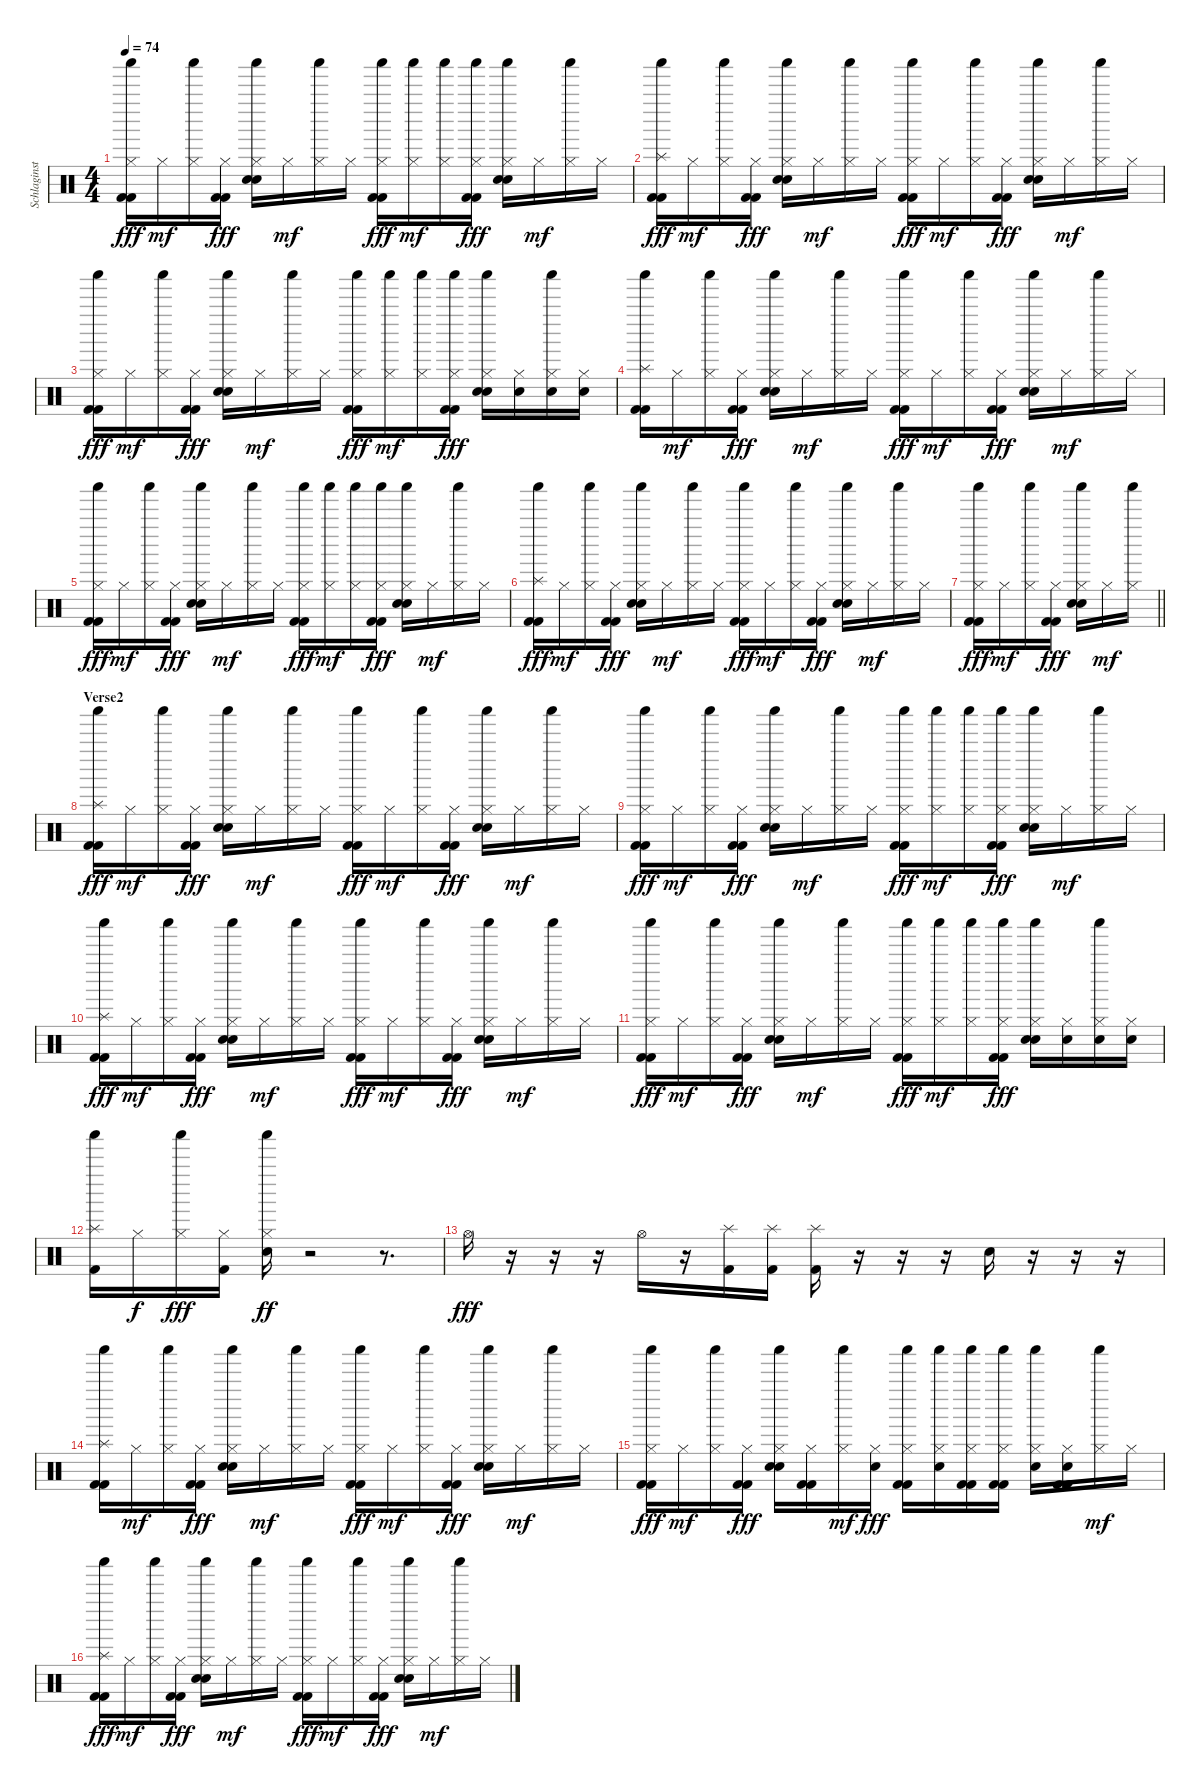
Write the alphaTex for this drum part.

\track ("Schlaginstrumente - Auswahl" "Schlaginst") {instrument percussion}
\staff {score}
\articulation defaults
\ts (4 4)
\tempo 74
\clef neutral
\ks c
("Shaker (hit)" "Hi-Hat (closed)" "Kick (hit) 2" "Kick (hit) 2").16{dy fff} "Hi-Hat (closed)".16{dy mf} ("Shaker (hit)" "Hi-Hat (closed)").16 ("Hi-Hat (closed)" "Kick (hit) 2" "Kick (hit) 2").16{dy fff} ("Shaker (hit)" "Hi-Hat (closed)" "Electric Snare (hit)" "Hand Clap (hit)").16 "Hi-Hat (closed)".16{dy mf} ("Shaker (hit)" "Hi-Hat (closed)").16 "Hi-Hat (closed)".16 ("Shaker (hit)" "Hi-Hat (closed)" "Kick (hit) 2" "Kick (hit) 2").16{dy fff} ("Shaker (hit)" "Hi-Hat (closed)").16{dy mf} ("Shaker (hit)" "Hi-Hat (closed)").16 ("Shaker (hit)" "Hi-Hat (closed)" "Kick (hit) 2" "Kick (hit) 2").16{dy fff} ("Shaker (hit)" "Hi-Hat (closed)" "Electric Snare (hit)" "Hand Clap (hit)").16 "Hi-Hat (closed)".16{dy mf} ("Shaker (hit)" "Hi-Hat (closed)").16 "Hi-Hat (closed)".16 |
("Shaker (hit)" "Splash (hit)" "Kick (hit) 2" "Kick (hit) 2").16{dy fff} "Hi-Hat (closed)".16{dy mf} ("Shaker (hit)" "Hi-Hat (closed)").16 ("Hi-Hat (closed)" "Kick (hit) 2" "Kick (hit) 2").16{dy fff} ("Shaker (hit)" "Hi-Hat (closed)" "Electric Snare (hit)" "Hand Clap (hit)").16 "Hi-Hat (closed)".16{dy mf} ("Shaker (hit)" "Hi-Hat (closed)").16 "Hi-Hat (closed)".16 ("Shaker (hit)" "Hi-Hat (closed)" "Kick (hit) 2" "Kick (hit) 2").16{dy fff} "Hi-Hat (closed)".16{dy mf} ("Shaker (hit)" "Hi-Hat (closed)").16 ("Hi-Hat (closed)" "Kick (hit) 2" "Kick (hit) 2").16{dy fff} ("Shaker (hit)" "Hi-Hat (closed)" "Electric Snare (hit)" "Hand Clap (hit)").16 "Hi-Hat (closed)".16{dy mf} ("Shaker (hit)" "Hi-Hat (closed)").16 "Hi-Hat (closed)".16 |
("Shaker (hit)" "Hi-Hat (closed)" "Kick (hit) 2" "Kick (hit) 2").16{dy fff} "Hi-Hat (closed)".16{dy mf} ("Shaker (hit)" "Hi-Hat (closed)").16 ("Hi-Hat (closed)" "Kick (hit) 2" "Kick (hit) 2").16{dy fff} ("Shaker (hit)" "Hi-Hat (closed)" "Electric Snare (hit)" "Hand Clap (hit)").16 "Hi-Hat (closed)".16{dy mf} ("Shaker (hit)" "Hi-Hat (closed)").16 "Hi-Hat (closed)".16 ("Shaker (hit)" "Hi-Hat (closed)" "Kick (hit) 2" "Kick (hit) 2").16{dy fff} ("Shaker (hit)" "Hi-Hat (closed)").16{dy mf} ("Shaker (hit)" "Hi-Hat (closed)").16 ("Shaker (hit)" "Hi-Hat (closed)" "Kick (hit) 2" "Kick (hit) 2").16{dy fff} ("Shaker (hit)" "Hi-Hat (closed)" "Electric Snare (hit)" "Hand Clap (hit)").16 ("Hi-Hat (closed)" "Electric Snare (hit)").16 ("Shaker (hit)" "Hi-Hat (closed)" "Electric Snare (hit)").16 ("Hi-Hat (closed)" "Electric Snare (hit)").16 |
("Shaker (hit)" "Splash (hit)" "Kick (hit) 2" "Kick (hit) 2").16 "Hi-Hat (closed)".16{dy mf} ("Shaker (hit)" "Hi-Hat (closed)").16 ("Hi-Hat (closed)" "Kick (hit) 2" "Kick (hit) 2").16{dy fff} ("Shaker (hit)" "Hi-Hat (closed)" "Electric Snare (hit)" "Hand Clap (hit)").16 "Hi-Hat (closed)".16{dy mf} ("Shaker (hit)" "Hi-Hat (closed)").16 "Hi-Hat (closed)".16 ("Shaker (hit)" "Hi-Hat (closed)" "Kick (hit) 2" "Kick (hit) 2").16{dy fff} "Hi-Hat (closed)".16{dy mf} ("Shaker (hit)" "Hi-Hat (closed)").16 ("Hi-Hat (closed)" "Kick (hit) 2" "Kick (hit) 2").16{dy fff} ("Shaker (hit)" "Hi-Hat (closed)" "Electric Snare (hit)" "Hand Clap (hit)").16 "Hi-Hat (closed)".16{dy mf} ("Shaker (hit)" "Hi-Hat (closed)").16 "Hi-Hat (closed)".16 |
("Shaker (hit)" "Hi-Hat (closed)" "Kick (hit) 2" "Kick (hit) 2").16{dy fff} "Hi-Hat (closed)".16{dy mf} ("Shaker (hit)" "Hi-Hat (closed)").16 ("Hi-Hat (closed)" "Kick (hit) 2" "Kick (hit) 2").16{dy fff} ("Shaker (hit)" "Hi-Hat (closed)" "Electric Snare (hit)" "Hand Clap (hit)").16 "Hi-Hat (closed)".16{dy mf} ("Shaker (hit)" "Hi-Hat (closed)").16 "Hi-Hat (closed)".16 ("Shaker (hit)" "Hi-Hat (closed)" "Kick (hit) 2" "Kick (hit) 2").16{dy fff} ("Shaker (hit)" "Hi-Hat (closed)").16{dy mf} ("Shaker (hit)" "Hi-Hat (closed)").16 ("Shaker (hit)" "Hi-Hat (closed)" "Kick (hit) 2" "Kick (hit) 2").16{dy fff} ("Shaker (hit)" "Hi-Hat (closed)" "Electric Snare (hit)" "Hand Clap (hit)").16 "Hi-Hat (closed)".16{dy mf} ("Shaker (hit)" "Hi-Hat (closed)").16 "Hi-Hat (closed)".16 |
("Shaker (hit)" "Splash (hit)" "Kick (hit) 2" "Kick (hit) 2").16{dy fff} "Hi-Hat (closed)".16{dy mf} ("Shaker (hit)" "Hi-Hat (closed)").16 ("Hi-Hat (closed)" "Kick (hit) 2" "Kick (hit) 2").16{dy fff} ("Shaker (hit)" "Hi-Hat (closed)" "Electric Snare (hit)" "Hand Clap (hit)").16 "Hi-Hat (closed)".16{dy mf} ("Shaker (hit)" "Hi-Hat (closed)").16 "Hi-Hat (closed)".16 ("Shaker (hit)" "Hi-Hat (closed)" "Kick (hit) 2" "Kick (hit) 2").16{dy fff} "Hi-Hat (closed)".16{dy mf} ("Shaker (hit)" "Hi-Hat (closed)").16 ("Hi-Hat (closed)" "Kick (hit) 2" "Kick (hit) 2").16{dy fff} ("Shaker (hit)" "Hi-Hat (closed)" "Electric Snare (hit)" "Hand Clap (hit)").16 "Hi-Hat (closed)".16{dy mf} ("Shaker (hit)" "Hi-Hat (closed)").16 "Hi-Hat (closed)".16 |
\barLineRight lightlight
("Shaker (hit)" "Hi-Hat (closed)" "Kick (hit) 2" "Kick (hit) 2").16{dy fff} "Hi-Hat (closed)".16{dy mf} ("Shaker (hit)" "Hi-Hat (closed)").16 ("Hi-Hat (closed)" "Kick (hit) 2" "Kick (hit) 2").16{dy fff} ("Shaker (hit)" "Hi-Hat (closed)" "Electric Snare (hit)" "Hand Clap (hit)").16 "Hi-Hat (closed)".16{dy mf} ("Shaker (hit)" "Hi-Hat (closed)").16 |
\section ("" "Verse2")
("Shaker (hit)" "Splash (hit)" "Kick (hit) 2" "Kick (hit) 2").16{dy fff} "Hi-Hat (closed)".16{dy mf} ("Shaker (hit)" "Hi-Hat (closed)").16 ("Hi-Hat (closed)" "Kick (hit) 2" "Kick (hit) 2").16{dy fff} ("Shaker (hit)" "Hi-Hat (closed)" "Electric Snare (hit)" "Hand Clap (hit)").16 "Hi-Hat (closed)".16{dy mf} ("Shaker (hit)" "Hi-Hat (closed)").16 "Hi-Hat (closed)".16 ("Shaker (hit)" "Hi-Hat (closed)" "Kick (hit) 2" "Kick (hit) 2").16{dy fff} "Hi-Hat (closed)".16{dy mf} ("Shaker (hit)" "Hi-Hat (closed)").16 ("Hi-Hat (closed)" "Kick (hit) 2" "Kick (hit) 2").16{dy fff} ("Shaker (hit)" "Hi-Hat (closed)" "Electric Snare (hit)" "Hand Clap (hit)").16 "Hi-Hat (closed)".16{dy mf} ("Shaker (hit)" "Hi-Hat (closed)").16 "Hi-Hat (closed)".16 |
("Shaker (hit)" "Hi-Hat (closed)" "Kick (hit) 2" "Kick (hit) 2").16{dy fff} "Hi-Hat (closed)".16{dy mf} ("Shaker (hit)" "Hi-Hat (closed)").16 ("Hi-Hat (closed)" "Kick (hit) 2" "Kick (hit) 2").16{dy fff} ("Shaker (hit)" "Hi-Hat (closed)" "Electric Snare (hit)" "Hand Clap (hit)").16 "Hi-Hat (closed)".16{dy mf} ("Shaker (hit)" "Hi-Hat (closed)").16 "Hi-Hat (closed)".16 ("Shaker (hit)" "Hi-Hat (closed)" "Kick (hit) 2" "Kick (hit) 2").16{dy fff} ("Shaker (hit)" "Hi-Hat (closed)").16{dy mf} ("Shaker (hit)" "Hi-Hat (closed)").16 ("Shaker (hit)" "Hi-Hat (closed)" "Kick (hit) 2" "Kick (hit) 2").16{dy fff} ("Shaker (hit)" "Hi-Hat (closed)" "Electric Snare (hit)" "Hand Clap (hit)").16 "Hi-Hat (closed)".16{dy mf} ("Shaker (hit)" "Hi-Hat (closed)").16 "Hi-Hat (closed)".16 |
("Shaker (hit)" "Splash (hit)" "Kick (hit) 2" "Kick (hit) 2").16{dy fff} "Hi-Hat (closed)".16{dy mf} ("Shaker (hit)" "Hi-Hat (closed)").16 ("Hi-Hat (closed)" "Kick (hit) 2" "Kick (hit) 2").16{dy fff} ("Shaker (hit)" "Hi-Hat (closed)" "Electric Snare (hit)" "Hand Clap (hit)").16 "Hi-Hat (closed)".16{dy mf} ("Shaker (hit)" "Hi-Hat (closed)").16 "Hi-Hat (closed)".16 ("Shaker (hit)" "Hi-Hat (closed)" "Kick (hit) 2" "Kick (hit) 2").16{dy fff} "Hi-Hat (closed)".16{dy mf} ("Shaker (hit)" "Hi-Hat (closed)").16 ("Hi-Hat (closed)" "Kick (hit) 2" "Kick (hit) 2").16{dy fff} ("Shaker (hit)" "Hi-Hat (closed)" "Electric Snare (hit)" "Hand Clap (hit)").16 "Hi-Hat (closed)".16{dy mf} ("Shaker (hit)" "Hi-Hat (closed)").16 "Hi-Hat (closed)".16 |
("Shaker (hit)" "Hi-Hat (closed)" "Kick (hit) 2" "Kick (hit) 2").16{dy fff} "Hi-Hat (closed)".16{dy mf} ("Shaker (hit)" "Hi-Hat (closed)").16 ("Hi-Hat (closed)" "Kick (hit) 2" "Kick (hit) 2").16{dy fff} ("Shaker (hit)" "Hi-Hat (closed)" "Electric Snare (hit)" "Hand Clap (hit)").16 "Hi-Hat (closed)".16{dy mf} ("Shaker (hit)" "Hi-Hat (closed)").16 "Hi-Hat (closed)".16 ("Shaker (hit)" "Hi-Hat (closed)" "Kick (hit) 2" "Kick (hit) 2").16{dy fff} ("Shaker (hit)" "Hi-Hat (closed)").16{dy mf} ("Shaker (hit)" "Hi-Hat (closed)").16 ("Shaker (hit)" "Hi-Hat (closed)" "Kick (hit) 2" "Kick (hit) 2").16{dy fff} ("Shaker (hit)" "Hi-Hat (closed)" "Electric Snare (hit)" "Hand Clap (hit)").16 ("Hi-Hat (closed)" "Electric Snare (hit)").16 ("Shaker (hit)" "Hi-Hat (closed)" "Electric Snare (hit)").16 ("Hi-Hat (closed)" "Electric Snare (hit)").16 |
("Shaker (hit)" "Splash (hit)" "Kick (hit) 2").16 "Hi-Hat (closed)".16{dy f} ("Shaker (hit)" "Hi-Hat (closed)").16{dy fff} ("Hi-Hat (closed)" "Kick (hit) 2").16 ("Shaker (hit)" "Hi-Hat (closed)" "Electric Snare (hit)").16{dy ff} r.2 r.8{d} |
"Hi-Hat (open)".16{dy fff} r.16 r.16 r.16 "Hi-Hat (open)".16 r.16 ("Splash (hit)" "Kick (hit) 2").16 ("Splash (hit)" "Kick (hit) 2").16 ("Splash (hit)" "Kick (hit) 2").16 r.16 r.16 r.16 "Electric Snare (hit)".16 r.16 r.16 r.16 |
("Shaker (hit)" "Splash (hit)" "Kick (hit) 2" "Kick (hit) 2").16 "Hi-Hat (closed)".16{dy mf} ("Shaker (hit)" "Hi-Hat (closed)").16 ("Hi-Hat (closed)" "Kick (hit) 2" "Kick (hit) 2").16{dy fff} ("Shaker (hit)" "Hi-Hat (closed)" "Electric Snare (hit)" "Hand Clap (hit)").16 "Hi-Hat (closed)".16{dy mf} ("Shaker (hit)" "Hi-Hat (closed)").16 "Hi-Hat (closed)".16 ("Shaker (hit)" "Hi-Hat (closed)" "Kick (hit) 2" "Kick (hit) 2").16{dy fff} "Hi-Hat (closed)".16{dy mf} ("Shaker (hit)" "Hi-Hat (closed)").16 ("Hi-Hat (closed)" "Kick (hit) 2" "Kick (hit) 2").16{dy fff} ("Shaker (hit)" "Hi-Hat (closed)" "Electric Snare (hit)" "Hand Clap (hit)").16 "Hi-Hat (closed)".16{dy mf} ("Shaker (hit)" "Hi-Hat (closed)").16 "Hi-Hat (closed)".16 |
("Shaker (hit)" "Hi-Hat (closed)" "Kick (hit) 2" "Kick (hit) 2").16{dy fff} "Hi-Hat (closed)".16{dy mf} ("Shaker (hit)" "Hi-Hat (closed)").16 ("Hi-Hat (closed)" "Kick (hit) 2" "Kick (hit) 2").16{dy fff} ("Shaker (hit)" "Hi-Hat (closed)" "Electric Snare (hit)" "Hand Clap (hit)").16 ("Hi-Hat (closed)" "Kick (hit) 2" "Kick (hit) 2").16 ("Shaker (hit)" "Hi-Hat (closed)").16{dy mf} ("Hi-Hat (closed)" "Electric Snare (hit)").16{dy fff} ("Shaker (hit)" "Hi-Hat (closed)" "Kick (hit) 2" "Kick (hit) 2").16 ("Shaker (hit)" "Hi-Hat (closed)" "Electric Snare (hit)").16 ("Shaker (hit)" "Hi-Hat (closed)" "Kick (hit) 2" "Kick (hit) 2").16 ("Shaker (hit)" "Hi-Hat (closed)" "Kick (hit) 2" "Kick (hit) 2").16 ("Shaker (hit)" "Hi-Hat (closed)" "Electric Snare (hit)").16 ("Hi-Hat (closed)" "Hand Clap (hit)" "Kick (hit) 2" "Kick (hit) 2").16 ("Shaker (hit)" "Hi-Hat (closed)").16{dy mf} "Hi-Hat (closed)".16 |
("Shaker (hit)" "Splash (hit)" "Kick (hit) 2" "Kick (hit) 2").16{dy fff} "Hi-Hat (closed)".16{dy mf} ("Shaker (hit)" "Hi-Hat (closed)").16 ("Hi-Hat (closed)" "Kick (hit) 2" "Kick (hit) 2").16{dy fff} ("Shaker (hit)" "Hi-Hat (closed)" "Electric Snare (hit)" "Hand Clap (hit)").16 "Hi-Hat (closed)".16{dy mf} ("Shaker (hit)" "Hi-Hat (closed)").16 "Hi-Hat (closed)".16 ("Shaker (hit)" "Hi-Hat (closed)" "Kick (hit) 2" "Kick (hit) 2").16{dy fff} "Hi-Hat (closed)".16{dy mf} ("Shaker (hit)" "Hi-Hat (closed)").16 ("Hi-Hat (closed)" "Kick (hit) 2" "Kick (hit) 2").16{dy fff} ("Shaker (hit)" "Hi-Hat (closed)" "Electric Snare (hit)" "Hand Clap (hit)").16 "Hi-Hat (closed)".16{dy mf} ("Shaker (hit)" "Hi-Hat (closed)").16 "Hi-Hat (closed)".16
